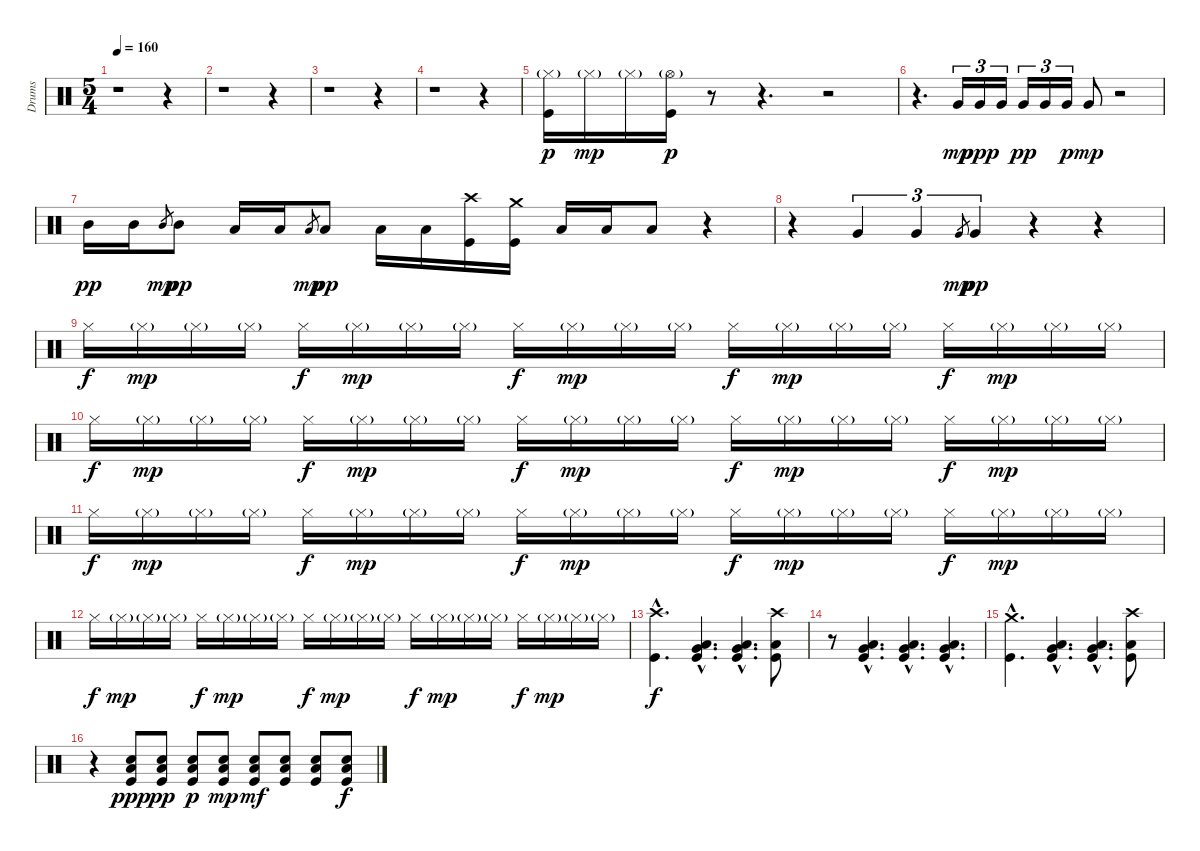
\track ("Drums" "Drums") {instrument percussion}
\staff {score}
\articulation defaults
\ts (5 4)
\tempo 160
\clef neutral
\ks c
r.1{dy p} r.4 |
r.1 r.4 |
r.1 r.4 |
r.1 r.4 |
("Hi-Hat (closed)"{g} "Kick (hit)").16{balance 0} "Hi-Hat (closed)"{g}.16{dy mp} "Hi-Hat (closed)"{g}.16 ("Hi-Hat (open)"{g} "Kick (hit)").16{dy p} r.8 r.4{d} r.2 |
r.4{d} "Very Low Tom (hit)".16{tu (3 2) dy mp balance 0} "Very Low Tom (hit)".16{tu (3 2) dy ppp} "Very Low Tom (hit)".16{tu (3 2)} "Very Low Tom (hit)".16{tu (3 2) dy pp} "Very Low Tom (hit)".16{tu (3 2)} "Very Low Tom (hit)".16{tu (3 2) dy p} "Very Low Tom (hit)".8{dy mp} r.2 |
"Mid Tom (hit)".16{dy pp balance 16} "Mid Tom (hit)".16{balance 14} "Mid Tom (hit)".8{gr dy mp} "Mid Tom (hit)".8{dy pp volume 16 balance 13} "Low Tom (hit)".16{balance 13} "Low Tom (hit)".16{balance 12} "Low Tom (hit)".8{gr dy mp} "Low Tom (hit)".8{dy pp balance 10} "Low Floor Tom (hit)".16 "Low Floor Tom (hit)".16 ("Crash high (hit)" "Kick (hit)").16 ("Crash medium (hit)" "Kick (hit)").16 "Low Floor Tom (hit)".16 "Low Floor Tom (hit)".16 "Low Floor Tom (hit)".8 r.4 |
r.4 "Very Low Tom (hit)".4{tu (3 2)} "Very Low Tom (hit)".4{tu (3 2)} "Very Low Tom (hit)".8{gr dy mp} "Very Low Tom (hit)".4{tu (3 2) dy pp} r.4 r.4 |
"Hi-Hat (closed)".16{dy f volume 12 balance 8} "Hi-Hat (closed)"{g}.16{dy mp} "Hi-Hat (closed)"{g}.16 "Hi-Hat (closed)"{g}.16 "Hi-Hat (closed)".16{dy f} "Hi-Hat (closed)"{g}.16{dy mp} "Hi-Hat (closed)"{g}.16 "Hi-Hat (closed)"{g}.16 "Hi-Hat (closed)".16{dy f} "Hi-Hat (closed)"{g}.16{dy mp} "Hi-Hat (closed)"{g}.16 "Hi-Hat (closed)"{g}.16 "Hi-Hat (closed)".16{dy f} "Hi-Hat (closed)"{g}.16{dy mp} "Hi-Hat (closed)"{g}.16 "Hi-Hat (closed)"{g}.16 "Hi-Hat (closed)".16{dy f} "Hi-Hat (closed)"{g}.16{dy mp} "Hi-Hat (closed)"{g}.16 "Hi-Hat (closed)"{g}.16 |
"Hi-Hat (closed)".16{dy f volume 12 balance 8} "Hi-Hat (closed)"{g}.16{dy mp} "Hi-Hat (closed)"{g}.16 "Hi-Hat (closed)"{g}.16 "Hi-Hat (closed)".16{dy f} "Hi-Hat (closed)"{g}.16{dy mp} "Hi-Hat (closed)"{g}.16 "Hi-Hat (closed)"{g}.16 "Hi-Hat (closed)".16{dy f} "Hi-Hat (closed)"{g}.16{dy mp} "Hi-Hat (closed)"{g}.16 "Hi-Hat (closed)"{g}.16 "Hi-Hat (closed)".16{dy f} "Hi-Hat (closed)"{g}.16{dy mp} "Hi-Hat (closed)"{g}.16 "Hi-Hat (closed)"{g}.16 "Hi-Hat (closed)".16{dy f} "Hi-Hat (closed)"{g}.16{dy mp} "Hi-Hat (closed)"{g}.16 "Hi-Hat (closed)"{g}.16 |
"Hi-Hat (closed)".16{dy f} "Hi-Hat (closed)"{g}.16{dy mp} "Hi-Hat (closed)"{g}.16 "Hi-Hat (closed)"{g}.16 "Hi-Hat (closed)".16{dy f} "Hi-Hat (closed)"{g}.16{dy mp} "Hi-Hat (closed)"{g}.16 "Hi-Hat (closed)"{g}.16 "Hi-Hat (closed)".16{dy f} "Hi-Hat (closed)"{g}.16{dy mp} "Hi-Hat (closed)"{g}.16 "Hi-Hat (closed)"{g}.16 "Hi-Hat (closed)".16{dy f} "Hi-Hat (closed)"{g}.16{dy mp} "Hi-Hat (closed)"{g}.16 "Hi-Hat (closed)"{g}.16 "Hi-Hat (closed)".16{dy f} "Hi-Hat (closed)"{g}.16{dy mp} "Hi-Hat (closed)"{g}.16 "Hi-Hat (closed)"{g}.16 |
"Hi-Hat (closed)".16{dy f} "Hi-Hat (closed)"{g}.16{dy mp} "Hi-Hat (closed)"{g}.16 "Hi-Hat (closed)"{g}.16 "Hi-Hat (closed)".16{dy f} "Hi-Hat (closed)"{g}.16{dy mp} "Hi-Hat (closed)"{g}.16 "Hi-Hat (closed)"{g}.16 "Hi-Hat (closed)".16{dy f} "Hi-Hat (closed)"{g}.16{dy mp} "Hi-Hat (closed)"{g}.16 "Hi-Hat (closed)"{g}.16 "Hi-Hat (closed)".16{dy f} "Hi-Hat (closed)"{g}.16{dy mp} "Hi-Hat (closed)"{g}.16 "Hi-Hat (closed)"{g}.16 "Hi-Hat (closed)".16{dy f} "Hi-Hat (closed)"{g}.16{dy mp} "Hi-Hat (closed)"{g}.16 "Hi-Hat (closed)"{g}.16 |
("Crash high (hit)"{hac} "Kick (hit)"{hac}).4{d dy f} ("Very Low Tom (hit)"{hac} "Low Floor Tom (hit)"{hac} "Kick (hit)"{hac}).4{d} ("Very Low Tom (hit)"{hac} "Low Floor Tom (hit)"{hac} "Kick (hit)"{hac}).4{d} ("Crash high (hit)" "Low Floor Tom (hit)" "Kick (hit)").8 |
r.8 ("Very Low Tom (hit)"{hac} "Low Floor Tom (hit)"{hac} "Kick (hit)"{hac}).4{d} ("Very Low Tom (hit)"{hac} "Low Floor Tom (hit)"{hac} "Kick (hit)"{hac}).4{d} ("Very Low Tom (hit)"{hac} "Low Floor Tom (hit)"{hac} "Kick (hit)"{hac}).4{d} |
("Crash medium (hit)"{hac} "Kick (hit)"{hac}).4{d} ("Very Low Tom (hit)"{hac} "Low Floor Tom (hit)"{hac} "Kick (hit)"{hac}).4{d} ("Very Low Tom (hit)"{hac} "Low Floor Tom (hit)"{hac} "Kick (hit)"{hac}).4{d} ("Crash high (hit)" "Low Floor Tom (hit)" "Kick (hit)").8 |
r.4 ("Electric Snare (hit)" "Low Floor Tom (hit)" "Kick (hit)").8{dy ppp} ("Electric Snare (hit)" "Low Floor Tom (hit)" "Kick (hit)").8{dy pp} ("Electric Snare (hit)" "Low Floor Tom (hit)" "Kick (hit)").8{dy p} ("Electric Snare (hit)" "Low Floor Tom (hit)" "Kick (hit)").8{dy mp} ("Electric Snare (hit)" "Low Floor Tom (hit)" "Kick (hit)").8{dy mf} ("Electric Snare (hit)" "Low Floor Tom (hit)" "Kick (hit)").8 ("Electric Snare (hit)" "Low Floor Tom (hit)" "Kick (hit)").8 ("Electric Snare (hit)" "Low Floor Tom (hit)" "Kick (hit)").8{dy f}
